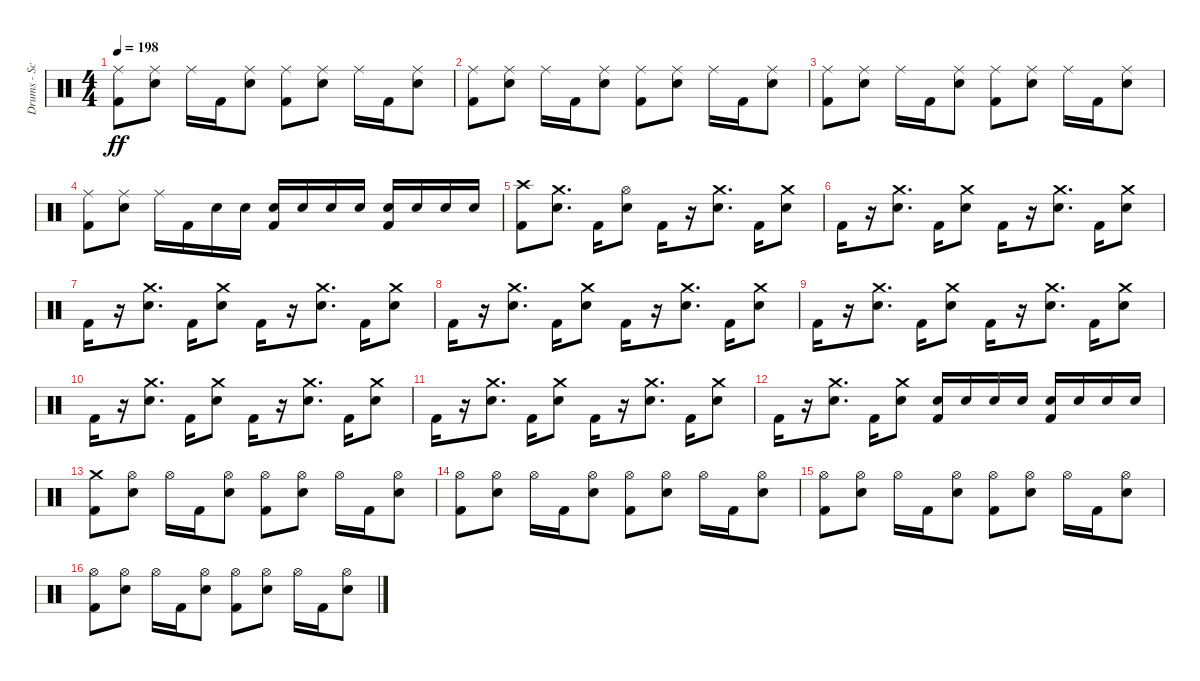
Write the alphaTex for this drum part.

\track ("Drums - Scott" "Drums - Sc") {instrument percussion}
\staff {score}
\articulation defaults
\ts (4 4)
\tempo 198
\clef neutral
\ks c
("Kick (hit) 2" "Ride (middle)").8{dy ff} ("Electric Snare (hit)" "Ride (middle)").8 "Ride (middle)".16 "Kick (hit) 2".16 ("Electric Snare (hit)" "Ride (middle)").8 ("Kick (hit) 2" "Ride (middle)").8 ("Electric Snare (hit)" "Ride (middle)").8 "Ride (middle)".16 "Kick (hit) 2".16 ("Electric Snare (hit)" "Ride (middle)").8 |
("Ride (middle)" "Kick (hit) 2").8 ("Ride (middle)" "Electric Snare (hit)").8 "Ride (middle)".16 "Kick (hit) 2".16 ("Ride (middle)" "Electric Snare (hit)").8 ("Ride (middle)" "Kick (hit) 2").8 ("Ride (middle)" "Electric Snare (hit)").8 "Ride (middle)".16 "Kick (hit) 2".16 ("Ride (middle)" "Electric Snare (hit)").8 |
("Ride (middle)" "Kick (hit) 2").8 ("Ride (middle)" "Electric Snare (hit)").8 "Ride (middle)".16 "Kick (hit) 2".16 ("Ride (middle)" "Electric Snare (hit)").8 ("Ride (middle)" "Kick (hit) 2").8 ("Ride (middle)" "Electric Snare (hit)").8 "Ride (middle)".16 "Kick (hit) 2".16 ("Ride (middle)" "Electric Snare (hit)").8 |
("Kick (hit) 2" "Ride (middle)").8 ("Electric Snare (hit)" "Ride (middle)").8 "Ride (middle)".16 "Kick (hit) 2".16 "Electric Snare (hit)".16 "Electric Snare (hit)".16 ("Kick (hit) 2" "Electric Snare (hit)").16 "Electric Snare (hit)".16 "Electric Snare (hit)".16 "Electric Snare (hit)".16 ("Electric Snare (hit)" "Kick (hit) 2").16 "Electric Snare (hit)".16 "Electric Snare (hit)".16 "Electric Snare (hit)".16 |
("Kick (hit) 2" "Crash high (hit)").8 ("Electric Snare (hit)" "Crash medium (hit)").8{d} "Kick (hit) 2".16 ("Electric Snare (hit)" "Hi-Hat (open)").8 "Kick (hit) 2".16 r.16 ("Electric Snare (hit)" "Crash medium (hit)").8{d} "Kick (hit) 2".16 ("Electric Snare (hit)" "Crash medium (hit)").8 |
"Kick (hit) 2".16 r.16 ("Electric Snare (hit)" "Crash medium (hit)").8{d} "Kick (hit) 2".16 ("Electric Snare (hit)" "Crash medium (hit)").8 "Kick (hit) 2".16 r.16 ("Electric Snare (hit)" "Crash medium (hit)").8{d} "Kick (hit) 2".16 ("Electric Snare (hit)" "Crash medium (hit)").8 |
"Kick (hit) 2".16 r.16 ("Electric Snare (hit)" "Crash medium (hit)").8{d} "Kick (hit) 2".16 ("Electric Snare (hit)" "Crash medium (hit)").8 "Kick (hit) 2".16 r.16 ("Electric Snare (hit)" "Crash medium (hit)").8{d} "Kick (hit) 2".16 ("Electric Snare (hit)" "Crash medium (hit)").8 |
"Kick (hit) 2".16 r.16 ("Electric Snare (hit)" "Crash medium (hit)").8{d} "Kick (hit) 2".16 ("Electric Snare (hit)" "Crash medium (hit)").8 "Kick (hit) 2".16 r.16 ("Electric Snare (hit)" "Crash medium (hit)").8{d} "Kick (hit) 2".16 ("Electric Snare (hit)" "Crash medium (hit)").8 |
"Kick (hit) 2".16 r.16 ("Electric Snare (hit)" "Crash medium (hit)").8{d} "Kick (hit) 2".16 ("Electric Snare (hit)" "Crash medium (hit)").8 "Kick (hit) 2".16 r.16 ("Electric Snare (hit)" "Crash medium (hit)").8{d} "Kick (hit) 2".16 ("Electric Snare (hit)" "Crash medium (hit)").8 |
"Kick (hit) 2".16 r.16 ("Electric Snare (hit)" "Crash medium (hit)").8{d} "Kick (hit) 2".16 ("Electric Snare (hit)" "Crash medium (hit)").8 "Kick (hit) 2".16 r.16 ("Electric Snare (hit)" "Crash medium (hit)").8{d} "Kick (hit) 2".16 ("Electric Snare (hit)" "Crash medium (hit)").8 |
"Kick (hit) 2".16 r.16 ("Electric Snare (hit)" "Crash medium (hit)").8{d} "Kick (hit) 2".16 ("Electric Snare (hit)" "Crash medium (hit)").8 "Kick (hit) 2".16 r.16 ("Electric Snare (hit)" "Crash medium (hit)").8{d} "Kick (hit) 2".16 ("Electric Snare (hit)" "Crash medium (hit)").8 |
"Kick (hit) 2".16 r.16 ("Electric Snare (hit)" "Crash medium (hit)").8{d} "Kick (hit) 2".16 ("Electric Snare (hit)" "Crash medium (hit)").8 ("Kick (hit) 2" "Electric Snare (hit)").16 "Electric Snare (hit)".16 "Electric Snare (hit)".16 "Electric Snare (hit)".16 ("Kick (hit) 2" "Electric Snare (hit)").16 "Electric Snare (hit)".16 "Electric Snare (hit)".16 "Electric Snare (hit)".16 |
("Crash medium (hit)" "Kick (hit) 2").8 ("Hi-Hat (open)" "Electric Snare (hit)").8 "Hi-Hat (open)".16 "Kick (hit) 2".16 ("Hi-Hat (open)" "Electric Snare (hit)").8 ("Hi-Hat (open)" "Kick (hit) 2").8 ("Hi-Hat (open)" "Electric Snare (hit)").8 "Hi-Hat (open)".16 "Kick (hit) 2".16 ("Hi-Hat (open)" "Electric Snare (hit)").8 |
("Hi-Hat (open)" "Kick (hit) 2").8 ("Hi-Hat (open)" "Electric Snare (hit)").8 "Hi-Hat (open)".16 "Kick (hit) 2".16 ("Hi-Hat (open)" "Electric Snare (hit)").8 ("Hi-Hat (open)" "Kick (hit) 2").8 ("Hi-Hat (open)" "Electric Snare (hit)").8 "Hi-Hat (open)".16 "Kick (hit) 2".16 ("Hi-Hat (open)" "Electric Snare (hit)").8 |
("Hi-Hat (open)" "Kick (hit) 2").8 ("Hi-Hat (open)" "Electric Snare (hit)").8 "Hi-Hat (open)".16 "Kick (hit) 2".16 ("Hi-Hat (open)" "Electric Snare (hit)").8 ("Hi-Hat (open)" "Kick (hit) 2").8 ("Hi-Hat (open)" "Electric Snare (hit)").8 "Hi-Hat (open)".16 "Kick (hit) 2".16 ("Hi-Hat (open)" "Electric Snare (hit)").8 |
("Hi-Hat (open)" "Kick (hit) 2").8 ("Hi-Hat (open)" "Electric Snare (hit)").8 "Hi-Hat (open)".16 "Kick (hit) 2".16 ("Hi-Hat (open)" "Electric Snare (hit)").8 ("Hi-Hat (open)" "Kick (hit) 2").8 ("Hi-Hat (open)" "Electric Snare (hit)").8 "Hi-Hat (open)".16 "Kick (hit) 2".16 ("Hi-Hat (open)" "Electric Snare (hit)").8
